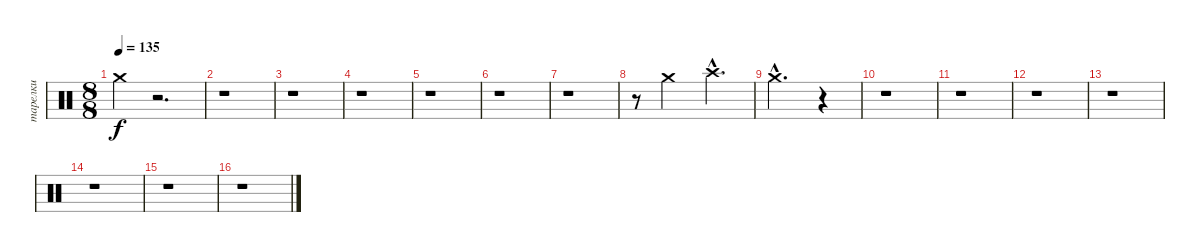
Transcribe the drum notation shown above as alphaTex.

\track ("тарелки" "тарелки") {instrument percussion}
\staff {score}
\articulation defaults
\ts (8 8)
\tempo 135
\clef neutral
\ks c "Crash medium (hit)".4{dy f}
r.2{d} |
r.1 |
r.1 |
r.1 |
r.1 |
r.1 |
r.1 |
r.8 "Crash medium (hit)".2 "Crash high (hit)"{hac}.4{d} |
"Crash medium (hit)"{hac}.2{d} r.4 |
r.1 |
r.1 |
r.1 |
r.1 |
r.1 |
r.1 |
r.1
